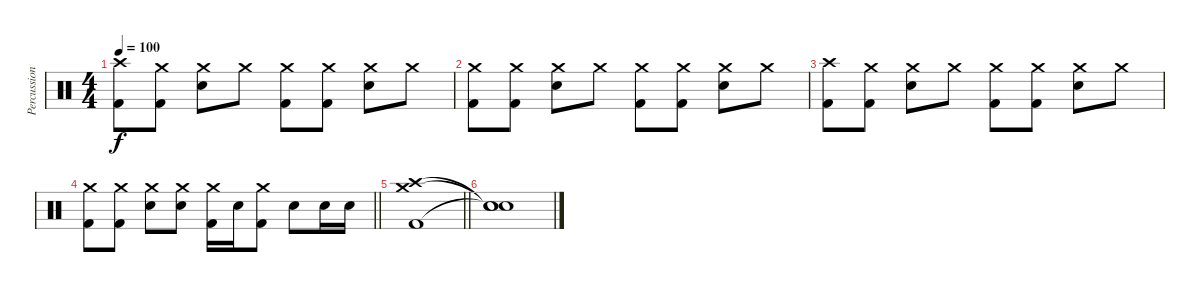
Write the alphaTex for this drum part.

\track ("Percussion" "Percussion") {instrument percussion}
\staff {score}
\articulation defaults
\ts (4 4)
\tempo 100
\clef neutral
\ks c
("Kick (hit) 2" "Crash high (hit)").8{dy f} ("Kick (hit) 2" "Crash medium (hit)").8 ("Snare (hit) 2" "Crash medium (hit)").8 "Crash medium (hit)".8 ("Kick (hit) 2" "Crash medium (hit)").8 ("Kick (hit) 2" "Crash medium (hit)").8 ("Snare (hit) 2" "Crash medium (hit)").8 "Crash medium (hit)".8 |
("Kick (hit) 2" "Crash medium (hit)").8 ("Kick (hit) 2" "Crash medium (hit)").8 ("Snare (hit) 2" "Crash medium (hit)").8 "Crash medium (hit)".8 ("Kick (hit) 2" "Crash medium (hit)").8 ("Kick (hit) 2" "Crash medium (hit)").8 ("Snare (hit) 2" "Crash medium (hit)").8 "Crash medium (hit)".8 |
("Kick (hit) 2" "Crash high (hit)").8 ("Kick (hit) 2" "Crash medium (hit)").8 ("Snare (hit) 2" "Crash medium (hit)").8 "Crash medium (hit)".8 ("Kick (hit) 2" "Crash medium (hit)").8 ("Kick (hit) 2" "Crash medium (hit)").8 ("Snare (hit) 2" "Crash medium (hit)").8 "Crash medium (hit)".8 |
\barLineRight lightlight
("Kick (hit) 2" "Crash medium (hit)").8 ("Kick (hit) 2" "Crash medium (hit)").8 ("Snare (hit) 2" "Crash medium (hit)").8 ("Snare (hit) 2" "Crash medium (hit)").8 ("Kick (hit) 2" "Crash medium (hit)").16 "Snare (hit) 2".16 ("Kick (hit) 2" "Crash medium (hit)").8 "Snare (hit) 2".8 "Snare (hit) 2".16 "Snare (hit) 2".16 |
\barLineRight lightlight
("Crash medium (hit)" "Kick (hit) 2" "Crash high (hit)").1 |
("Snare (hit)"{t} "Snare (hit)"{t} "Snare (hit)"{t}).1
